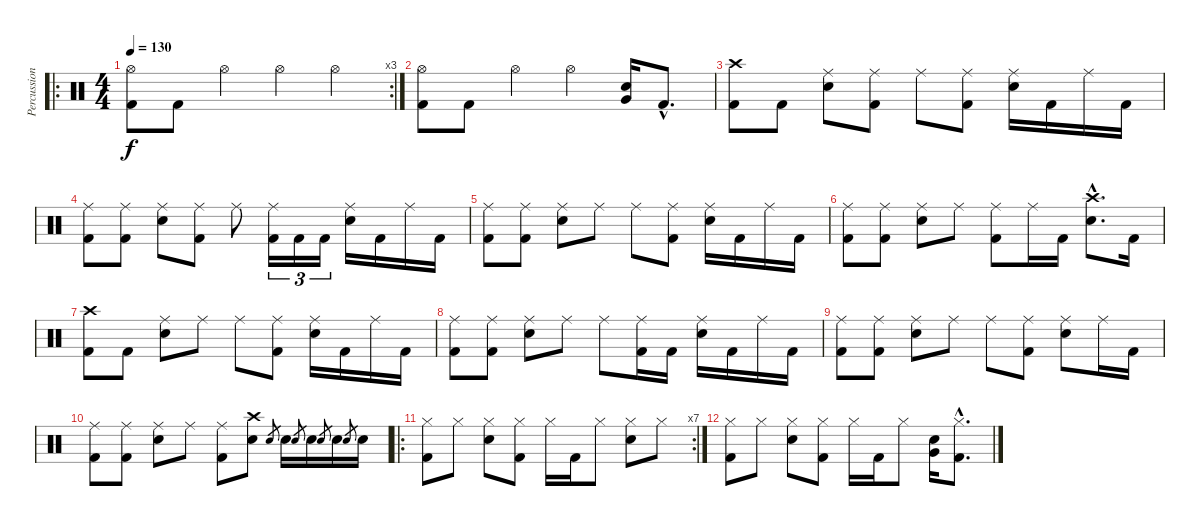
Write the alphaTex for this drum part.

\track ("Percussion" "Percussion") {instrument percussion}
\staff {score}
\articulation defaults
\ro
\rc 3
\ts (4 4)
\tempo 130
\clef neutral
\ks c
("Hi-Hat (open)" "Kick (hit) 2").8{dy f} "Kick (hit) 2".8 "Hi-Hat (open)".4 "Hi-Hat (open)".4 "Hi-Hat (open)".4 |
("Hi-Hat (open)" "Kick (hit) 2").8 "Kick (hit) 2".8 "Hi-Hat (open)".4 "Hi-Hat (open)".4 ("Very Low Tom (hit)" "Electric Snare (hit)").16 "Kick (hit) 2"{hac}.8{d} |
("Crash high (hit)" "Kick (hit) 2").8 "Kick (hit) 2".8 ("Ride (middle)" "Electric Snare (hit)").8 ("Ride (middle)" "Kick (hit) 2").8 "Ride (middle)".8 ("Ride (middle)" "Kick (hit) 2").8 ("Ride (middle)" "Electric Snare (hit)").16 "Kick (hit) 2".16 "Ride (middle)".16 "Kick (hit) 2".16 |
("Ride (middle)" "Kick (hit) 2").8 ("Ride (middle)" "Kick (hit) 2").8 ("Ride (middle)" "Electric Snare (hit)").8 ("Ride (middle)" "Kick (hit) 2").8 "Ride (middle)".8 ("Ride (middle)" "Kick (hit) 2").16{tu (3 2)} "Kick (hit) 2".16{tu (3 2)} "Kick (hit) 2".16{tu (3 2)} ("Ride (middle)" "Electric Snare (hit)").16 "Kick (hit) 2".16 "Ride (middle)".16 "Kick (hit) 2".16 |
("Ride (middle)" "Kick (hit) 2").8 ("Ride (middle)" "Kick (hit) 2").8 ("Ride (middle)" "Electric Snare (hit)").8 "Ride (middle)".8 "Ride (middle)".8 ("Ride (middle)" "Kick (hit) 2").8 ("Ride (middle)" "Electric Snare (hit)").16 "Kick (hit) 2".16 "Ride (middle)".16 "Kick (hit) 2".16 |
("Ride (middle)" "Kick (hit) 2").8 ("Ride (middle)" "Kick (hit) 2").8 ("Ride (middle)" "Electric Snare (hit)").8 "Ride (middle)".8 ("Ride (middle)" "Kick (hit) 2").8 "Ride (middle)".16 "Kick (hit) 2".16 ("Crash high (hit)"{hac} "Electric Snare (hit)"{hac}).8{d} "Kick (hit) 2".16 |
("Crash high (hit)" "Kick (hit) 2").8 "Kick (hit) 2".8 ("Ride (middle)" "Electric Snare (hit)").8 "Ride (middle)".8 "Ride (middle)".8 ("Ride (middle)" "Kick (hit) 2").8 ("Ride (middle)" "Electric Snare (hit)").16 "Kick (hit) 2".16 "Ride (middle)".16 "Kick (hit) 2".16 |
("Ride (middle)" "Kick (hit) 2").8 ("Ride (middle)" "Kick (hit) 2").8 ("Ride (middle)" "Electric Snare (hit)").8 "Ride (middle)".8 "Ride (middle)".8 ("Ride (middle)" "Kick (hit) 2").16 "Kick (hit) 2".16 ("Ride (middle)" "Electric Snare (hit)").16 "Kick (hit) 2".16 "Ride (middle)".16 "Kick (hit) 2".16 |
("Ride (middle)" "Kick (hit) 2").8 ("Ride (middle)" "Kick (hit) 2").8 ("Ride (middle)" "Electric Snare (hit)").8 "Ride (middle)".8 "Ride (middle)".8 ("Ride (middle)" "Kick (hit) 2").8 ("Ride (middle)" "Electric Snare (hit)").8 "Ride (middle)".16 "Kick (hit) 2".16 |
("Ride (middle)" "Kick (hit) 2").8 ("Ride (middle)" "Kick (hit) 2").8 ("Ride (middle)" "Electric Snare (hit)").8 "Ride (middle)".8 ("Ride (middle)" "Kick (hit) 2").8 ("Crash high (hit)" "Electric Snare (hit)").8 "Electric Snare (hit)".8{gr} "Electric Snare (hit)".16 "Electric Snare (hit)".8{gr} "Electric Snare (hit)".16 "Electric Snare (hit)".8{gr} "Electric Snare (hit)".16 "Electric Snare (hit)".8{gr} "Electric Snare (hit)".16 |
\ro
\rc 7
("Hi-Hat (closed)" "Kick (hit) 2").8 "Hi-Hat (closed)".8 ("Hi-Hat (closed)" "Electric Snare (hit)").8 ("Hi-Hat (closed)" "Kick (hit) 2").8 "Hi-Hat (closed)".16 "Kick (hit) 2".16 "Hi-Hat (closed)".8 ("Hi-Hat (closed)" "Electric Snare (hit)").8 "Hi-Hat (closed)".8 |
("Hi-Hat (closed)" "Kick (hit) 2").8 "Hi-Hat (closed)".8 ("Hi-Hat (closed)" "Electric Snare (hit)").8 ("Hi-Hat (closed)" "Kick (hit) 2").8 "Hi-Hat (closed)".16 "Kick (hit) 2".16 "Hi-Hat (closed)".8 ("Very Low Tom (hit)" "Electric Snare (hit)").16 ("Hi-Hat (closed)"{hac} "Kick (hit) 2"{hac}).8{d}
